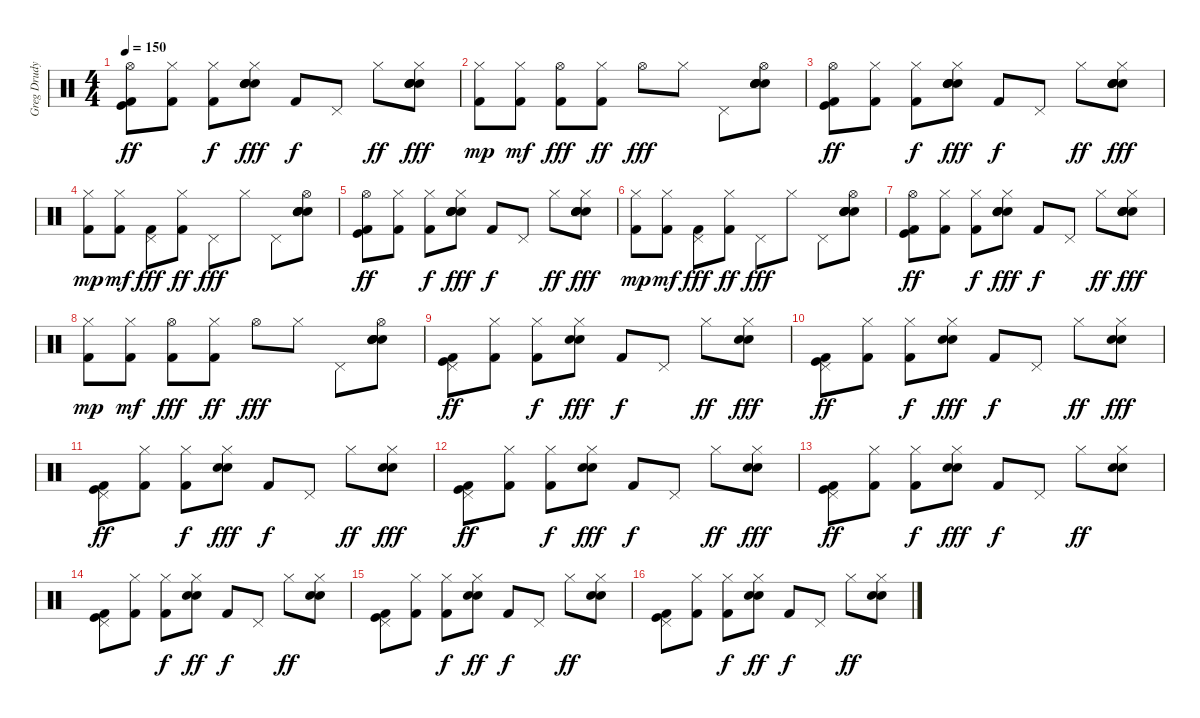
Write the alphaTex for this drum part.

\track ("Greg Drudy" "Greg Drudy") {instrument percussion}
\staff {score}
\articulation defaults
\ts (4 4)
\tempo 150
\clef neutral
\ks c
("Hi-Hat (open)" "Kick (hit)" "Kick (hit) 2").8{dy ff} ("Hi-Hat (closed)" "Kick (hit) 2").8 ("Hi-Hat (closed)" "Kick (hit) 2").8{dy f} ("Hi-Hat (closed)" "Snare (hit) 2" "Snare (hit) 2" "Electric Snare (hit)" "Electric Snare (hit)").8{dy fff} "Kick (hit) 2".8{dy f} "Pedal Hi-Hat (hit)".8 "Hi-Hat (closed)".8{dy ff} ("Hi-Hat (closed)" "Snare (hit) 2" "Snare (hit) 2" "Electric Snare (hit)" "Electric Snare (hit)").8{dy fff} |
("Hi-Hat (closed)" "Kick (hit) 2").8{dy mp} ("Hi-Hat (closed)" "Kick (hit) 2").8{dy mf} ("Hi-Hat (open)" "Kick (hit) 2").8{dy fff} ("Hi-Hat (closed)" "Kick (hit) 2").8{dy ff} "Hi-Hat (open)".8{dy fff} "Hi-Hat (closed)".8 "Pedal Hi-Hat (hit)".8 ("Hi-Hat (open)" "Snare (hit) 2" "Snare (hit) 2" "Electric Snare (hit)" "Electric Snare (hit)").8 |
("Hi-Hat (open)" "Kick (hit)" "Kick (hit) 2").8{dy ff} ("Hi-Hat (closed)" "Kick (hit) 2").8 ("Hi-Hat (closed)" "Kick (hit) 2").8{dy f} ("Hi-Hat (closed)" "Snare (hit) 2" "Snare (hit) 2" "Electric Snare (hit)" "Electric Snare (hit)").8{dy fff} "Kick (hit) 2".8{dy f} "Pedal Hi-Hat (hit)".8 "Hi-Hat (closed)".8{dy ff} ("Hi-Hat (closed)" "Snare (hit) 2" "Snare (hit) 2" "Electric Snare (hit)" "Electric Snare (hit)").8{dy fff} |
("Hi-Hat (closed)" "Kick (hit) 2").8{dy mp} ("Hi-Hat (closed)" "Kick (hit) 2").8{dy mf} ("Pedal Hi-Hat (hit)" "Kick (hit) 2").8{dy fff} ("Hi-Hat (closed)" "Kick (hit) 2").8{dy ff} "Pedal Hi-Hat (hit)".8{dy fff} "Hi-Hat (closed)".8 "Pedal Hi-Hat (hit)".8 ("Hi-Hat (open)" "Snare (hit) 2" "Snare (hit) 2" "Electric Snare (hit)" "Electric Snare (hit)").8 |
("Hi-Hat (open)" "Kick (hit)" "Kick (hit) 2").8{dy ff} ("Hi-Hat (closed)" "Kick (hit) 2").8 ("Hi-Hat (closed)" "Kick (hit) 2").8{dy f} ("Hi-Hat (closed)" "Snare (hit) 2" "Snare (hit) 2" "Electric Snare (hit)" "Electric Snare (hit)").8{dy fff} "Kick (hit) 2".8{dy f} "Pedal Hi-Hat (hit)".8 "Hi-Hat (closed)".8{dy ff} ("Hi-Hat (closed)" "Snare (hit) 2" "Snare (hit) 2" "Electric Snare (hit)" "Electric Snare (hit)").8{dy fff} |
("Hi-Hat (closed)" "Kick (hit) 2").8{dy mp} ("Hi-Hat (closed)" "Kick (hit) 2").8{dy mf} ("Pedal Hi-Hat (hit)" "Kick (hit) 2").8{dy fff} ("Hi-Hat (closed)" "Kick (hit) 2").8{dy ff} "Pedal Hi-Hat (hit)".8{dy fff} "Hi-Hat (closed)".8 "Pedal Hi-Hat (hit)".8 ("Hi-Hat (open)" "Snare (hit) 2" "Snare (hit) 2" "Electric Snare (hit)" "Electric Snare (hit)").8 |
("Hi-Hat (open)" "Kick (hit)" "Kick (hit) 2").8{dy ff} ("Hi-Hat (closed)" "Kick (hit) 2").8 ("Hi-Hat (closed)" "Kick (hit) 2").8{dy f} ("Hi-Hat (closed)" "Snare (hit) 2" "Snare (hit) 2" "Electric Snare (hit)" "Electric Snare (hit)").8{dy fff} "Kick (hit) 2".8{dy f} "Pedal Hi-Hat (hit)".8 "Hi-Hat (closed)".8{dy ff} ("Hi-Hat (closed)" "Snare (hit) 2" "Snare (hit) 2" "Electric Snare (hit)" "Electric Snare (hit)").8{dy fff} |
("Hi-Hat (closed)" "Kick (hit) 2").8{dy mp} ("Hi-Hat (closed)" "Kick (hit) 2").8{dy mf} ("Hi-Hat (open)" "Kick (hit) 2").8{dy fff} ("Hi-Hat (closed)" "Kick (hit) 2").8{dy ff} "Hi-Hat (open)".8{dy fff} "Hi-Hat (closed)".8 "Pedal Hi-Hat (hit)".8 ("Hi-Hat (open)" "Snare (hit) 2" "Snare (hit) 2" "Electric Snare (hit)" "Electric Snare (hit)").8 |
("Pedal Hi-Hat (hit)" "Kick (hit)" "Kick (hit) 2").8{dy ff} ("Hi-Hat (closed)" "Kick (hit) 2").8 ("Hi-Hat (closed)" "Kick (hit) 2").8{dy f} ("Hi-Hat (closed)" "Snare (hit) 2" "Snare (hit) 2").8{dy fff} "Kick (hit) 2".8{dy f} "Pedal Hi-Hat (hit)".8 "Hi-Hat (closed)".8{dy ff} ("Hi-Hat (closed)" "Snare (hit) 2" "Snare (hit) 2").8{dy fff} |
("Pedal Hi-Hat (hit)" "Kick (hit)" "Kick (hit) 2").8{dy ff} ("Hi-Hat (closed)" "Kick (hit) 2").8 ("Hi-Hat (closed)" "Kick (hit) 2").8{dy f} ("Hi-Hat (closed)" "Snare (hit) 2" "Snare (hit) 2").8{dy fff} "Kick (hit) 2".8{dy f} "Pedal Hi-Hat (hit)".8 "Hi-Hat (closed)".8{dy ff} ("Hi-Hat (closed)" "Snare (hit) 2" "Snare (hit) 2").8{dy fff} |
("Pedal Hi-Hat (hit)" "Kick (hit)" "Kick (hit) 2").8{dy ff} ("Hi-Hat (closed)" "Kick (hit) 2").8 ("Hi-Hat (closed)" "Kick (hit) 2").8{dy f} ("Hi-Hat (closed)" "Snare (hit) 2" "Snare (hit) 2").8{dy fff} "Kick (hit) 2".8{dy f} "Pedal Hi-Hat (hit)".8 "Hi-Hat (closed)".8{dy ff} ("Hi-Hat (closed)" "Snare (hit) 2" "Snare (hit) 2").8{dy fff} |
("Pedal Hi-Hat (hit)" "Kick (hit)" "Kick (hit) 2").8{dy ff} ("Hi-Hat (closed)" "Kick (hit) 2").8 ("Hi-Hat (closed)" "Kick (hit) 2").8{dy f} ("Hi-Hat (closed)" "Snare (hit) 2" "Snare (hit) 2").8{dy fff} "Kick (hit) 2".8{dy f} "Pedal Hi-Hat (hit)".8 "Hi-Hat (closed)".8{dy ff} ("Hi-Hat (closed)" "Snare (hit) 2" "Snare (hit) 2").8{dy fff} |
("Pedal Hi-Hat (hit)" "Kick (hit)" "Kick (hit) 2").8{dy ff} ("Hi-Hat (closed)" "Kick (hit) 2").8 ("Hi-Hat (closed)" "Kick (hit) 2").8{dy f} ("Hi-Hat (closed)" "Snare (hit) 2" "Snare (hit) 2").8{dy fff} "Kick (hit) 2".8{dy f} "Pedal Hi-Hat (hit)".8 "Hi-Hat (closed)".8{dy ff} ("Hi-Hat (closed)" "Snare (hit) 2" "Snare (hit) 2").8 |
("Pedal Hi-Hat (hit)" "Kick (hit)" "Kick (hit) 2").8 ("Hi-Hat (closed)" "Kick (hit) 2").8 ("Hi-Hat (closed)" "Kick (hit) 2").8{dy f} ("Hi-Hat (closed)" "Snare (hit) 2" "Snare (hit) 2").8{dy ff} "Kick (hit) 2".8{dy f} "Pedal Hi-Hat (hit)".8 "Hi-Hat (closed)".8{dy ff} ("Hi-Hat (closed)" "Snare (hit) 2" "Snare (hit) 2").8 |
("Pedal Hi-Hat (hit)" "Kick (hit)" "Kick (hit) 2").8 ("Hi-Hat (closed)" "Kick (hit) 2").8 ("Hi-Hat (closed)" "Kick (hit) 2").8{dy f} ("Hi-Hat (closed)" "Snare (hit) 2" "Snare (hit) 2").8{dy ff} "Kick (hit) 2".8{dy f} "Pedal Hi-Hat (hit)".8 "Hi-Hat (closed)".8{dy ff} ("Hi-Hat (closed)" "Snare (hit) 2" "Snare (hit) 2").8 |
("Pedal Hi-Hat (hit)" "Kick (hit)" "Kick (hit) 2").8 ("Hi-Hat (closed)" "Kick (hit) 2").8 ("Hi-Hat (closed)" "Kick (hit) 2").8{dy f} ("Hi-Hat (closed)" "Snare (hit) 2" "Snare (hit) 2").8{dy ff} "Kick (hit) 2".8{dy f} "Pedal Hi-Hat (hit)".8 "Hi-Hat (closed)".8{dy ff} ("Hi-Hat (closed)" "Snare (hit) 2" "Snare (hit) 2").8
